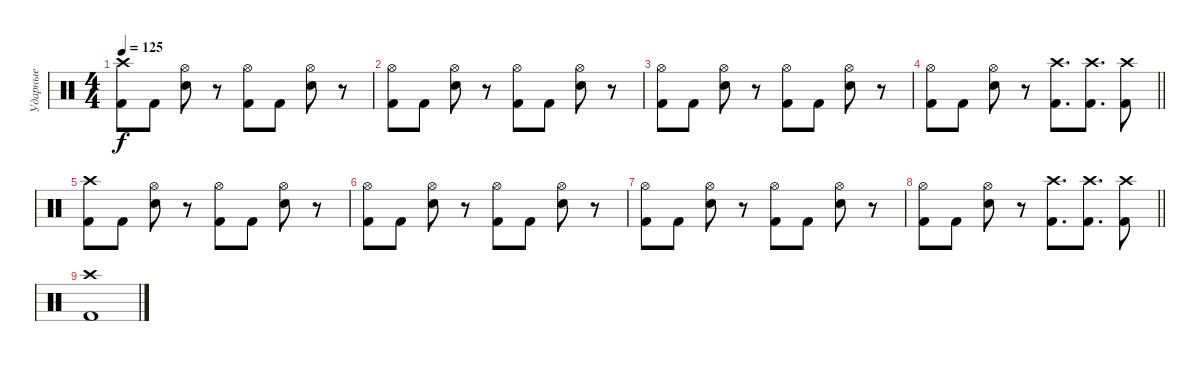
\track ("Ударные" "Ударные") {instrument percussion}
\staff {score}
\articulation defaults
\ts (4 4)
\tempo 125
\clef neutral
\ks c
("Kick (hit) 2" "Crash high (hit)").8{dy f} "Kick (hit) 2".8 ("Snare (hit) 2" "Hi-Hat (open)").8 r.8 ("Kick (hit) 2" "Hi-Hat (open)").8 "Kick (hit) 2".8 ("Snare (hit) 2" "Hi-Hat (open)").8 r.8 |
("Kick (hit) 2" "Hi-Hat (open)").8 "Kick (hit) 2".8 ("Snare (hit) 2" "Hi-Hat (open)").8 r.8 ("Kick (hit) 2" "Hi-Hat (open)").8 "Kick (hit) 2".8 ("Snare (hit) 2" "Hi-Hat (open)").8 r.8 |
("Kick (hit) 2" "Hi-Hat (open)").8 "Kick (hit) 2".8 ("Snare (hit) 2" "Hi-Hat (open)").8 r.8 ("Kick (hit) 2" "Hi-Hat (open)").8 "Kick (hit) 2".8 ("Snare (hit) 2" "Hi-Hat (open)").8 r.8 |
\barLineRight lightlight
("Kick (hit) 2" "Hi-Hat (open)").8 "Kick (hit) 2".8 ("Snare (hit) 2" "Hi-Hat (open)").8 r.8 ("Crash high (hit)" "Kick (hit) 2").8{d} ("Crash high (hit)" "Kick (hit) 2").8{d} ("Crash high (hit)" "Kick (hit) 2").8 |
("Kick (hit) 2" "Crash high (hit)").8 "Kick (hit) 2".8 ("Snare (hit) 2" "Hi-Hat (open)").8 r.8 ("Kick (hit) 2" "Hi-Hat (open)").8 "Kick (hit) 2".8 ("Snare (hit) 2" "Hi-Hat (open)").8 r.8 |
("Kick (hit) 2" "Hi-Hat (open)").8 "Kick (hit) 2".8 ("Snare (hit) 2" "Hi-Hat (open)").8 r.8 ("Kick (hit) 2" "Hi-Hat (open)").8 "Kick (hit) 2".8 ("Snare (hit) 2" "Hi-Hat (open)").8 r.8 |
("Kick (hit) 2" "Hi-Hat (open)").8 "Kick (hit) 2".8 ("Snare (hit) 2" "Hi-Hat (open)").8 r.8 ("Kick (hit) 2" "Hi-Hat (open)").8 "Kick (hit) 2".8 ("Snare (hit) 2" "Hi-Hat (open)").8 r.8 |
\barLineRight lightlight
("Kick (hit) 2" "Hi-Hat (open)").8 "Kick (hit) 2".8 ("Snare (hit) 2" "Hi-Hat (open)").8 r.8 ("Crash high (hit)" "Kick (hit) 2").8{d} ("Crash high (hit)" "Kick (hit) 2").8{d} ("Crash high (hit)" "Kick (hit) 2").8 |
("Crash high (hit)" "Kick (hit) 2").1
